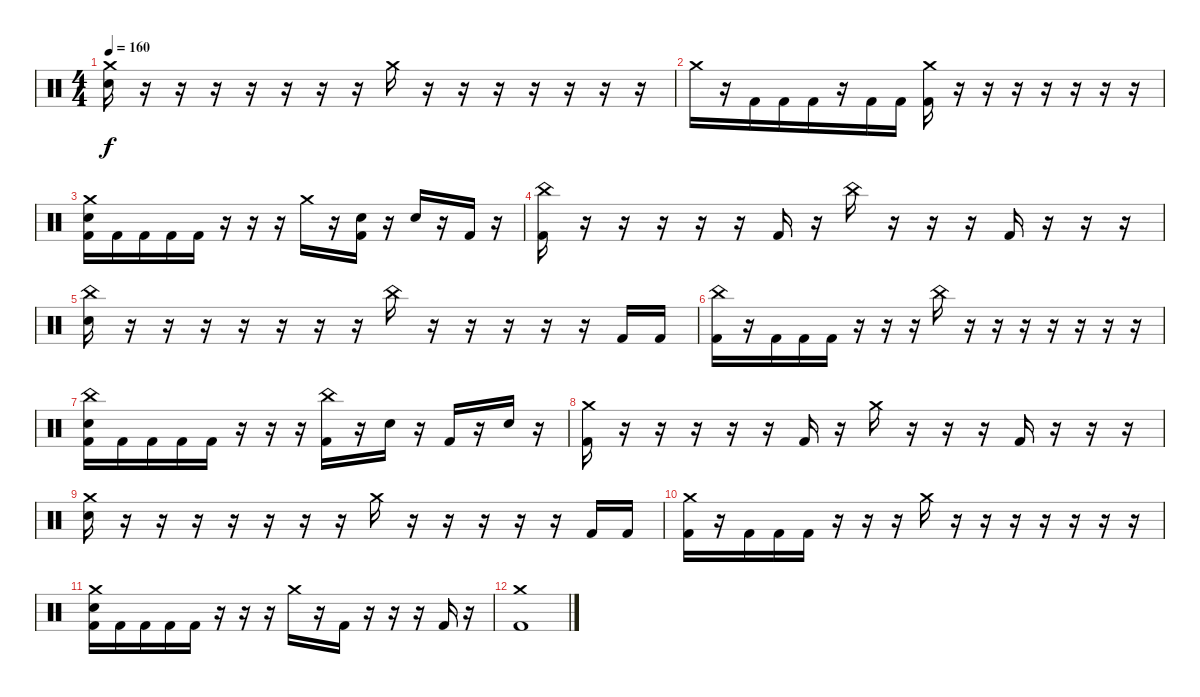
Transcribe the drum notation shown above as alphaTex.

\track "" {instrument percussion}
\staff {score}
\articulation defaults
\ts (4 4)
\tempo 160
\clef neutral
\ks c
("Crash medium (hit)" "Electric Snare (hit)").16{dy f} r.16 r.16{beam merge} r.16{beam merge} r.16 r.16 r.16 r.16 "Crash medium (hit)".16 r.16{beam merge} r.16 r.16{beam merge} r.16 r.16 r.16 r.16 |
"Crash medium (hit)".16 r.16 "Kick (hit) 2".16{beam merge} "Kick (hit) 2".16{beam merge} "Kick (hit) 2".16 r.16 "Kick (hit) 2".16 "Kick (hit) 2".16 ("Crash medium (hit)" "Kick (hit) 2").16 r.16{beam merge} r.16 r.16{beam merge} r.16 r.16 r.16 r.16 |
("Crash medium (hit)" "Electric Snare (hit)" "Kick (hit) 2").16 "Kick (hit) 2".16 "Kick (hit) 2".16{beam merge} "Kick (hit) 2".16{beam merge} "Kick (hit) 2".16 r.16 r.16 r.16 "Crash medium (hit)".16 r.16{beam merge} ("Electric Snare (hit)" "Kick (hit) 2").16 r.16{beam merge} "Electric Snare (hit)".16 r.16 "Kick (hit) 2".16 r.16 |
("China (hit)" "Kick (hit) 2").16 r.16 r.16{beam merge} r.16{beam merge} r.16 r.16 "Kick (hit) 2".16 r.16 "China (hit)".16 r.16{beam merge} r.16 r.16{beam merge} "Kick (hit) 2".16 r.16 r.16 r.16 |
("China (hit)" "Electric Snare (hit)").16 r.16 r.16{beam merge} r.16{beam merge} r.16 r.16 r.16 r.16 "China (hit)".16 r.16{beam merge} r.16 r.16{beam merge} r.16 r.16 "Kick (hit) 2".16 "Kick (hit) 2".16 |
("China (hit)" "Kick (hit) 2").16 r.16 "Kick (hit) 2".16{beam merge} "Kick (hit) 2".16{beam merge} "Kick (hit) 2".16 r.16 r.16 r.16 "China (hit)".16 r.16{beam merge} r.16 r.16{beam merge} r.16 r.16 r.16 r.16 |
("China (hit)" "Electric Snare (hit)" "Kick (hit) 2").16 "Kick (hit) 2".16 "Kick (hit) 2".16{beam merge} "Kick (hit) 2".16{beam merge} "Kick (hit) 2".16 r.16 r.16 r.16 ("China (hit)" "Kick (hit) 2").16 r.16{beam merge} "Electric Snare (hit)".16 r.16{beam merge} "Kick (hit) 2".16 r.16 "Electric Snare (hit)".16 r.16 |
("Crash medium (hit)" "Kick (hit) 2").16 r.16 r.16{beam merge} r.16{beam merge} r.16 r.16 "Kick (hit) 2".16 r.16 "Crash medium (hit)".16 r.16{beam merge} r.16 r.16{beam merge} "Kick (hit) 2".16 r.16 r.16 r.16 |
("Crash medium (hit)" "Electric Snare (hit)").16 r.16 r.16{beam merge} r.16{beam merge} r.16 r.16 r.16 r.16 "Crash medium (hit)".16 r.16{beam merge} r.16 r.16{beam merge} r.16 r.16 "Kick (hit) 2".16 "Kick (hit) 2".16 |
("Crash medium (hit)" "Kick (hit) 2").16 r.16 "Kick (hit) 2".16{beam merge} "Kick (hit) 2".16{beam merge} "Kick (hit) 2".16 r.16 r.16 r.16 "Crash medium (hit)".16 r.16{beam merge} r.16 r.16{beam merge} r.16 r.16 r.16 r.16 |
("Crash medium (hit)" "Electric Snare (hit)" "Kick (hit) 2").16 "Kick (hit) 2".16 "Kick (hit) 2".16{beam merge} "Kick (hit) 2".16{beam merge} "Kick (hit) 2".16 r.16 r.16 r.16 "Crash medium (hit)".16 r.16{beam merge} "Kick (hit) 2".16 r.16{beam merge} r.16 r.16 "Kick (hit) 2".16 r.16 |
("Crash medium (hit)" "Kick (hit) 2").1
